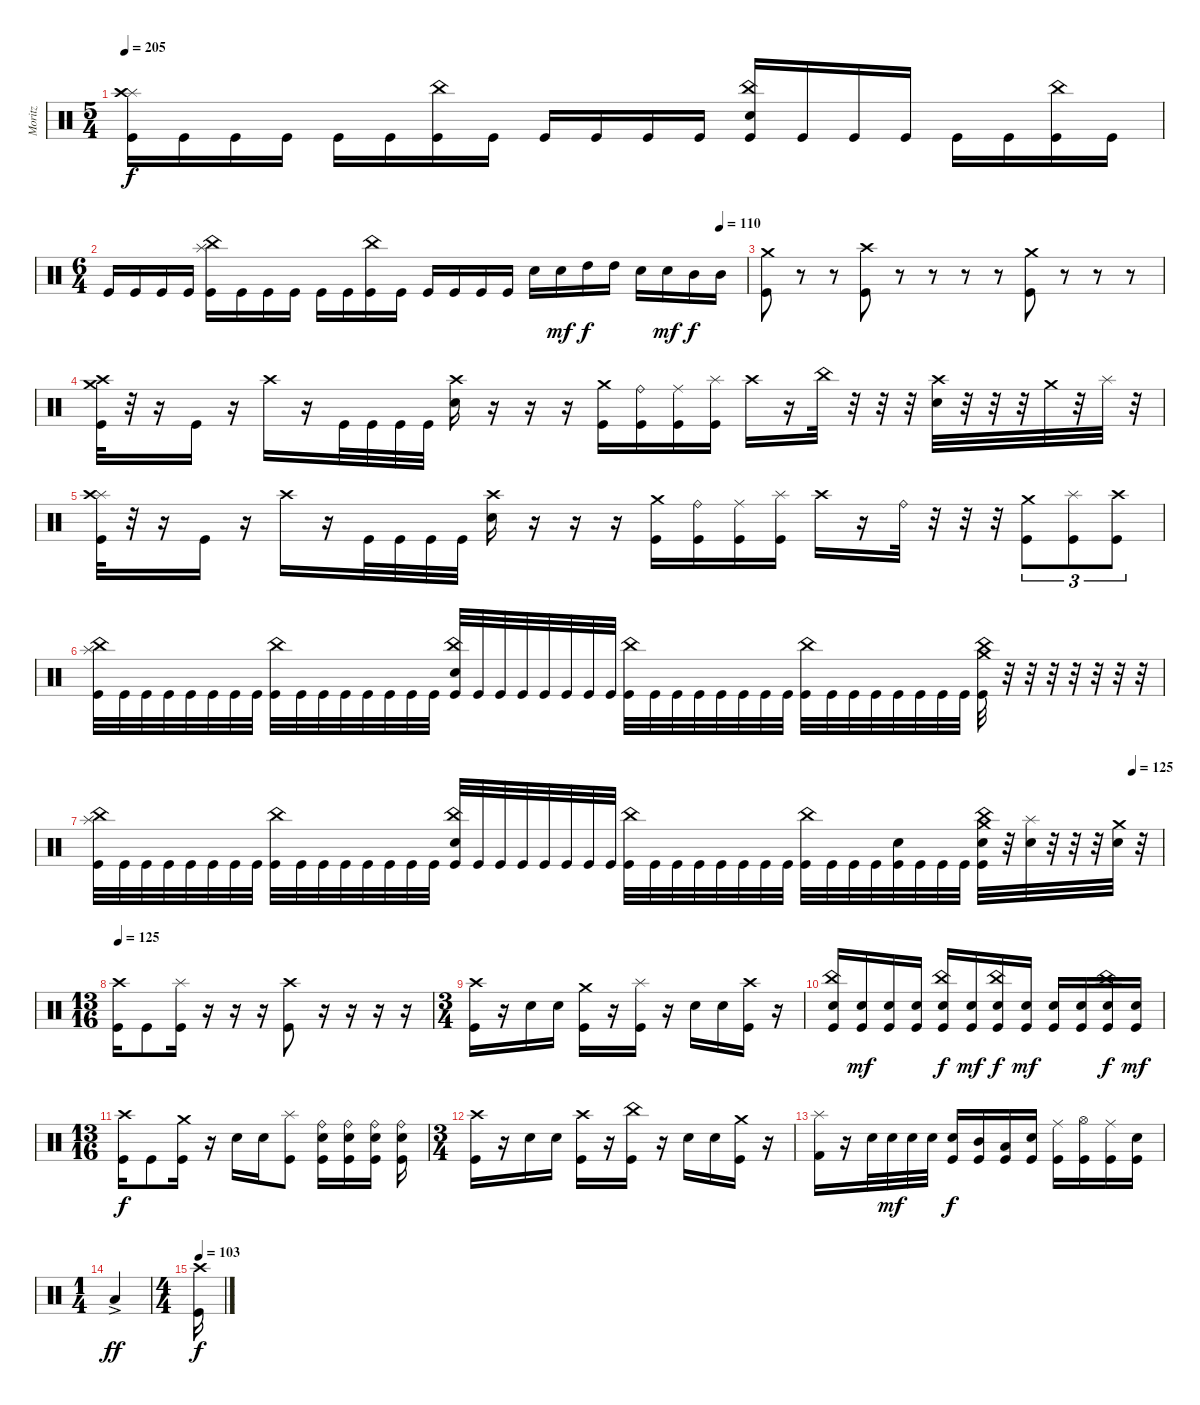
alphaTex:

\track ("Moritz" "Moritz") {instrument percussion}
\staff {score}
\articulation defaults
\ts (5 4)
\tempo 205
\clef neutral
\ks c
("Splash (hit)" "Crash high (hit)" "Kick (hit)").16{dy f} "Kick (hit)".16 "Kick (hit)".16 "Kick (hit)".16 "Kick (hit)".16 "Kick (hit)".16 ("China (hit)" "Kick (hit)").16 "Kick (hit)".16 "Kick (hit)".16 "Kick (hit)".16 "Kick (hit)".16 "Kick (hit)".16 ("China (hit)" "Snare (hit) 2" "Kick (hit)").16 "Kick (hit)".16 "Kick (hit)".16 "Kick (hit)".16 "Kick (hit)".16 "Kick (hit)".16 ("China (hit)" "Kick (hit)").16 "Kick (hit)".16 |
\ts (6 4)
\tempo (110 0.9583333333333334)
"Kick (hit)".16 "Kick (hit)".16 "Kick (hit)".16 "Kick (hit)".16 ("Splash (hit)" "China (hit)" "Kick (hit)").16 "Kick (hit)".16 "Kick (hit)".16 "Kick (hit)".16 "Kick (hit)".16 "Kick (hit)".16 ("China (hit)" "Kick (hit)").16 "Kick (hit)".16 "Kick (hit)".16 "Kick (hit)".16 "Kick (hit)".16 "Kick (hit)".16 "Snare (hit) 2".16 "Snare (hit) 2".16{dy mf} "High Tom (hit)".16{dy f} "High Tom (hit)".16 "Snare (hit) 2".16 "Snare (hit) 2".16{dy mf} "Mid Tom (hit)".16{dy f} "Mid Tom (hit)".16 |
("Crash medium (hit)" "Kick (hit)").8 r.8 r.8 ("Crash high (hit)" "Kick (hit)").8 r.8 r.8 r.8 r.8 ("Crash medium (hit)" "Kick (hit)").8 r.8 r.8 r.8 |
("Crash medium (hit)" "Crash high (hit)" "Kick (hit)").32 r.32 r.16 "Kick (hit)".16 r.16 "Crash high (hit)".16 r.16 "Kick (hit)".32 "Kick (hit)".32 "Kick (hit)".32 "Kick (hit)".32 ("Crash high (hit)" "Snare (hit) 2").16 r.16 r.16 r.16 ("Crash medium (hit)" "Kick (hit)").16 ("Ride (bell)" "Kick (hit)").16 ("Ride (middle)" "Kick (hit)").16 ("Splash (hit)" "Kick (hit)").16 "Crash high (hit)".16 r.16 "China (hit)".32 r.32 r.32 r.32 ("Crash high (hit)" "Snare (hit) 2").32 r.32 r.32 r.32 "Crash medium (hit)".32 r.32 "Splash (hit)".32 r.32 |
("Splash (hit)" "Crash high (hit)" "Kick (hit)").32 r.32 r.16 "Kick (hit)".16 r.16 "Crash high (hit)".16 r.16 "Kick (hit)".32 "Kick (hit)".32 "Kick (hit)".32 "Kick (hit)".32 ("Crash high (hit)" "Snare (hit) 2").16 r.16 r.16 r.16 ("Crash medium (hit)" "Kick (hit)").16 ("Ride (bell)" "Kick (hit)").16 ("Ride (middle)" "Kick (hit)").16 ("Splash (hit)" "Kick (hit)").16 "Crash high (hit)".16 r.16 "Ride (bell)".32 r.32 r.32 r.32 ("Crash medium (hit)" "Kick (hit)").8{tu (3 2)} ("Splash (hit)" "Kick (hit)").8{tu (3 2)} ("Crash high (hit)" "Kick (hit)").8{tu (3 2)} |
("Splash (hit)" "China (hit)" "Kick (hit)").32 "Kick (hit)".32 "Kick (hit)".32 "Kick (hit)".32 "Kick (hit)".32 "Kick (hit)".32 "Kick (hit)".32 "Kick (hit)".32 ("China (hit)" "Kick (hit)").32 "Kick (hit)".32 "Kick (hit)".32 "Kick (hit)".32 "Kick (hit)".32 "Kick (hit)".32 "Kick (hit)".32 "Kick (hit)".32 ("China (hit)" "Snare (hit) 2" "Kick (hit)").32 "Kick (hit)".32 "Kick (hit)".32 "Kick (hit)".32 "Kick (hit)".32 "Kick (hit)".32 "Kick (hit)".32 "Kick (hit)".32 ("China (hit)" "Kick (hit)").32 "Kick (hit)".32 "Kick (hit)".32 "Kick (hit)".32 "Kick (hit)".32 "Kick (hit)".32 "Kick (hit)".32 "Kick (hit)".32 ("China (hit)" "Kick (hit)").32 "Kick (hit)".32 "Kick (hit)".32 "Kick (hit)".32 "Kick (hit)".32 "Kick (hit)".32 "Kick (hit)".32 "Kick (hit)".32 ("Crash medium (hit)" "China (hit)" "Kick (hit)").32 r.32 r.32 r.32 r.32 r.32 r.32 r.32 |
\tempo (125 0.9722222222222222)
("Splash (hit)" "China (hit)" "Kick (hit)").32 "Kick (hit)".32 "Kick (hit)".32 "Kick (hit)".32 "Kick (hit)".32 "Kick (hit)".32 "Kick (hit)".32 "Kick (hit)".32 ("China (hit)" "Kick (hit)").32 "Kick (hit)".32 "Kick (hit)".32 "Kick (hit)".32 "Kick (hit)".32 "Kick (hit)".32 "Kick (hit)".32 "Kick (hit)".32 ("China (hit)" "Snare (hit) 2" "Kick (hit)").32 "Kick (hit)".32 "Kick (hit)".32 "Kick (hit)".32 "Kick (hit)".32 "Kick (hit)".32 "Kick (hit)".32 "Kick (hit)".32 ("China (hit)" "Kick (hit)").32 "Kick (hit)".32 "Kick (hit)".32 "Kick (hit)".32 "Kick (hit)".32 "Kick (hit)".32 "Kick (hit)".32 "Kick (hit)".32 ("China (hit)" "Kick (hit)").32 "Kick (hit)".32 "Kick (hit)".32 "Kick (hit)".32 ("Snare (hit) 2" "Kick (hit)").32 "Kick (hit)".32 "Kick (hit)".32 "Kick (hit)".32 ("Crash medium (hit)" "China (hit)" "Snare (hit) 2" "Kick (hit)").32 r.32 ("Splash (hit)" "Snare (hit) 2").32 r.32 r.32 r.32 ("Crash medium (hit)" "Snare (hit) 2").32 r.32 |
\ts (13 16)
\tempo 125
("Crash high (hit)" "Kick (hit)").16 "Kick (hit)".8 ("Splash (hit)" "Kick (hit)").16 r.16 r.16 r.16 ("Crash high (hit)" "Kick (hit)").8 r.16 r.16 r.16 r.16 |
\ts (3 4)
("Crash high (hit)" "Kick (hit)").16 r.16 "Snare (hit) 2".16 "Snare (hit) 2".16 ("Crash medium (hit)" "Kick (hit)").16 r.16 ("Splash (hit)" "Kick (hit)").16 r.16 "Snare (hit) 2".16 "Snare (hit) 2".16 ("Crash high (hit)" "Kick (hit)").16 r.16 |
("China (hit)" "Snare (hit) 2" "Kick (hit)").16 ("Snare (hit) 2" "Kick (hit)").16{dy mf} ("Snare (hit) 2" "Kick (hit)").16 ("Snare (hit) 2" "Kick (hit)").16 ("China (hit)" "Snare (hit) 2" "Kick (hit)").16{dy f} ("Snare (hit) 2" "Kick (hit)").16{dy mf} ("China (hit)" "Snare (hit) 2" "Kick (hit)").16{dy f} ("Snare (hit) 2" "Kick (hit)").16{dy mf} ("Snare (hit) 2" "Kick (hit)").16 ("Snare (hit) 2" "Kick (hit)").16 ("China (hit)" "Snare (hit) 2" "Kick (hit)").16{dy f} ("Snare (hit) 2" "Kick (hit)").16{dy mf} |
\ts (13 16)
("Crash high (hit)" "Kick (hit)").16{dy f} "Kick (hit)".8 ("Crash medium (hit)" "Kick (hit)").16 r.16 "Snare (hit) 2".16 "Snare (hit) 2".16 ("Splash (hit)" "Kick (hit)").8 ("Ride (bell)" "Snare (hit) 2" "Kick (hit)").16 ("Ride (bell)" "Snare (hit) 2" "Kick (hit)").16 ("Ride (bell)" "Snare (hit) 2" "Kick (hit)").16 ("Ride (bell)" "Snare (hit) 2" "Kick (hit)").16 |
\ts (3 4)
("Crash high (hit)" "Kick (hit)").16 r.16 "Snare (hit) 2".16 "Snare (hit) 2".16 ("Crash high (hit)" "Kick (hit)").16 r.16 ("China (hit)" "Kick (hit)").16 r.16 "Snare (hit) 2".16 "Snare (hit) 2".16 ("Crash medium (hit)" "Kick (hit)").16 r.16 |
("Splash (hit)" "Kick (hit) 2").16 r.16 "Snare (hit) 2".32 "Snare (hit) 2".32{dy mf} "Snare (hit) 2".32 "Snare (hit) 2".32 ("Snare (hit) 2" "Kick (hit)").16{dy f} ("Mid Tom (hit)" "Kick (hit)").16 ("Low Floor Tom (hit)" "Kick (hit)").16 ("Snare (hit) 2" "Kick (hit)").16 ("Ride (middle)" "Kick (hit)").16 ("Hi-Hat (open)" "Kick (hit)").16 ("Ride (middle)" "Kick (hit)").16 ("Snare (hit) 2" "Kick (hit)").16 |
\ts (1 4)
"Low Floor Tom (hit)"{ac}.4{dy ff} |
\ts (4 4)
\tempo 103
("Crash high (hit)" "Kick (hit)").16{dy f}
